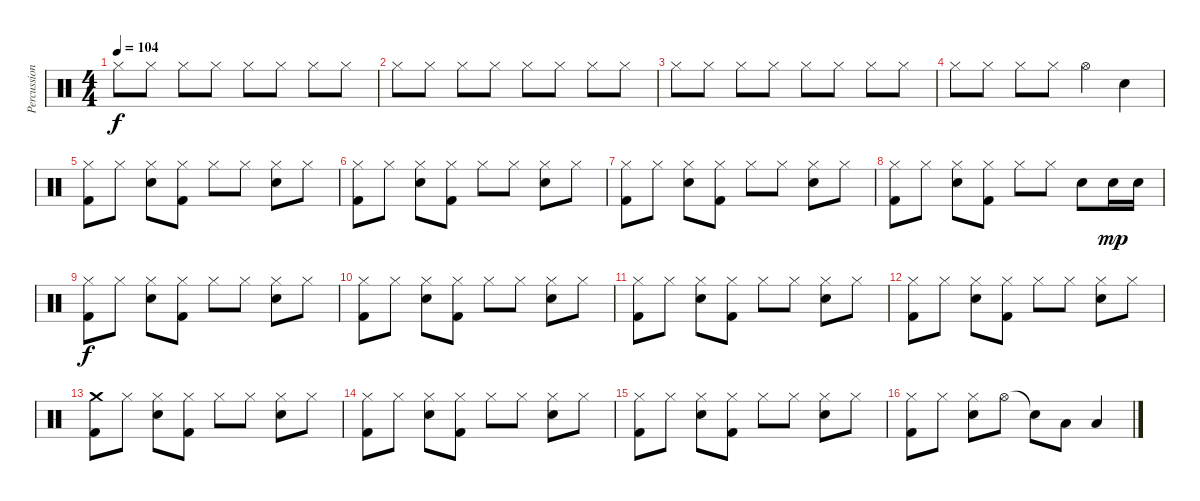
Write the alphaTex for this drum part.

\track ("Percussion" "Percussion") {instrument percussion}
\staff {score}
\articulation defaults
\ts (4 4)
\tempo 104
\clef neutral
\ks c "Hi-Hat (closed)".8{dy f} "Hi-Hat (closed)".8 "Hi-Hat (closed)".8 "Hi-Hat (closed)".8 "Hi-Hat (closed)".8 "Hi-Hat (closed)".8 "Hi-Hat (closed)".8 "Hi-Hat (closed)".8
|
"Hi-Hat (closed)".8 "Hi-Hat (closed)".8 "Hi-Hat (closed)".8 "Hi-Hat (closed)".8 "Hi-Hat (closed)".8 "Hi-Hat (closed)".8 "Hi-Hat (closed)".8 "Hi-Hat (closed)".8 |
"Hi-Hat (closed)".8 "Hi-Hat (closed)".8 "Hi-Hat (closed)".8 "Hi-Hat (closed)".8 "Hi-Hat (closed)".8 "Hi-Hat (closed)".8 "Hi-Hat (closed)".8 "Hi-Hat (closed)".8 |
"Hi-Hat (closed)".8 "Hi-Hat (closed)".8 "Hi-Hat (closed)".8 "Hi-Hat (closed)".8 "Hi-Hat (open)".4 "Electric Snare (hit)".4 |
("Hi-Hat (closed)" "Kick (hit) 2").8 "Hi-Hat (closed)".8 ("Hi-Hat (closed)" "Electric Snare (hit)").8 ("Hi-Hat (closed)" "Kick (hit) 2").8 "Hi-Hat (closed)".8 "Hi-Hat (closed)".8 ("Hi-Hat (closed)" "Electric Snare (hit)").8 "Hi-Hat (closed)".8 |
("Hi-Hat (closed)" "Kick (hit) 2").8 "Hi-Hat (closed)".8 ("Hi-Hat (closed)" "Electric Snare (hit)").8 ("Hi-Hat (closed)" "Kick (hit) 2").8 "Hi-Hat (closed)".8 "Hi-Hat (closed)".8 ("Hi-Hat (closed)" "Electric Snare (hit)").8 "Hi-Hat (closed)".8 |
("Hi-Hat (closed)" "Kick (hit) 2").8 "Hi-Hat (closed)".8 ("Hi-Hat (closed)" "Electric Snare (hit)").8 ("Hi-Hat (closed)" "Kick (hit) 2").8 "Hi-Hat (closed)".8 "Hi-Hat (closed)".8 ("Hi-Hat (closed)" "Electric Snare (hit)").8 "Hi-Hat (closed)".8 |
("Hi-Hat (closed)" "Kick (hit) 2").8 "Hi-Hat (closed)".8 ("Hi-Hat (closed)" "Electric Snare (hit)").8 ("Hi-Hat (closed)" "Kick (hit) 2").8 "Hi-Hat (closed)".8 "Hi-Hat (closed)".8 "Electric Snare (hit)".8 "Electric Snare (hit)".16{dy mp} "Electric Snare (hit)".16 |
("Hi-Hat (closed)" "Kick (hit) 2").8{dy f} "Hi-Hat (closed)".8 ("Hi-Hat (closed)" "Electric Snare (hit)").8 ("Hi-Hat (closed)" "Kick (hit) 2").8 "Hi-Hat (closed)".8 "Hi-Hat (closed)".8 ("Hi-Hat (closed)" "Electric Snare (hit)").8 "Hi-Hat (closed)".8 |
("Hi-Hat (closed)" "Kick (hit) 2").8 "Hi-Hat (closed)".8 ("Hi-Hat (closed)" "Electric Snare (hit)").8 ("Hi-Hat (closed)" "Kick (hit) 2").8 "Hi-Hat (closed)".8 "Hi-Hat (closed)".8 ("Hi-Hat (closed)" "Electric Snare (hit)").8 "Hi-Hat (closed)".8 |
("Hi-Hat (closed)" "Kick (hit) 2").8 "Hi-Hat (closed)".8 ("Hi-Hat (closed)" "Electric Snare (hit)").8 ("Hi-Hat (closed)" "Kick (hit) 2").8 "Hi-Hat (closed)".8 "Hi-Hat (closed)".8 ("Hi-Hat (closed)" "Electric Snare (hit)").8 "Hi-Hat (closed)".8 |
("Hi-Hat (closed)" "Kick (hit) 2").8 "Hi-Hat (closed)".8 ("Hi-Hat (closed)" "Electric Snare (hit)").8 ("Hi-Hat (closed)" "Kick (hit) 2").8 "Hi-Hat (closed)".8 "Hi-Hat (closed)".8 ("Hi-Hat (closed)" "Electric Snare (hit)").8 "Hi-Hat (closed)".8 |
("Crash medium (hit)" "Kick (hit) 2").8 "Hi-Hat (closed)".8 ("Hi-Hat (closed)" "Electric Snare (hit)").8 ("Hi-Hat (closed)" "Kick (hit) 2").8 "Hi-Hat (closed)".8 "Hi-Hat (closed)".8 ("Hi-Hat (closed)" "Electric Snare (hit)").8 "Hi-Hat (closed)".8 |
("Hi-Hat (closed)" "Kick (hit) 2").8 "Hi-Hat (closed)".8 ("Hi-Hat (closed)" "Electric Snare (hit)").8 ("Hi-Hat (closed)" "Kick (hit) 2").8 "Hi-Hat (closed)".8 "Hi-Hat (closed)".8 ("Hi-Hat (closed)" "Electric Snare (hit)").8 "Hi-Hat (closed)".8 |
("Hi-Hat (closed)" "Kick (hit) 2").8 "Hi-Hat (closed)".8 ("Hi-Hat (closed)" "Electric Snare (hit)").8 ("Hi-Hat (closed)" "Kick (hit) 2").8 "Hi-Hat (closed)".8 "Hi-Hat (closed)".8 ("Hi-Hat (closed)" "Electric Snare (hit)").8 "Hi-Hat (closed)".8 |
("Hi-Hat (closed)" "Kick (hit) 2").8 "Hi-Hat (closed)".8 ("Hi-Hat (closed)" "Electric Snare (hit)").8 "Hi-Hat (open)".8 "Snare (hit)"{t}.8 "Low Floor Tom (hit)".8 "Low Floor Tom (hit)".4
